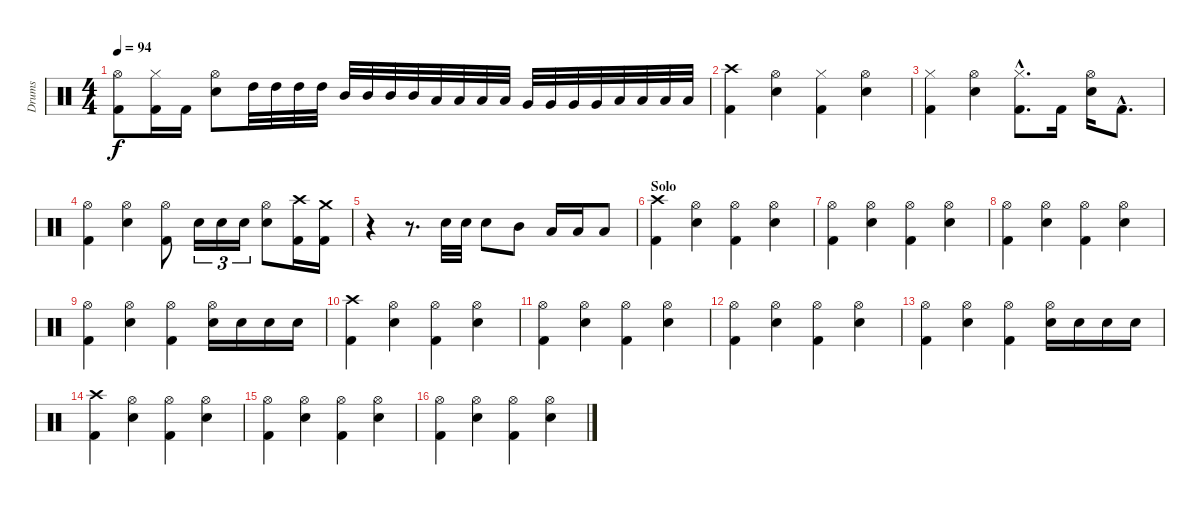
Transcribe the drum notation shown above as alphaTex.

\track ("Drums" "Drums") {instrument percussion}
\staff {score}
\articulation defaults
\ts (4 4)
\tempo 94
\clef neutral
\ks c
("Hi-Hat (open)" "Kick (hit) 2").8{dy f} ("Hi-Hat (closed)" "Kick (hit) 2").16 "Kick (hit) 2".16 ("Hi-Hat (open)" "Snare (hit) 2").8 "High Tom (hit)".32 "High Tom (hit)".32 "High Tom (hit)".32 "High Tom (hit)".32 "Mid Tom (hit)".32 "Mid Tom (hit)".32 "Mid Tom (hit)".32 "Mid Tom (hit)".32 "Low Tom (hit)".32 "Low Tom (hit)".32 "Low Tom (hit)".32 "Low Tom (hit)".32 "Very Low Tom (hit)".32 "Very Low Tom (hit)".32 "Very Low Tom (hit)".32 "Very Low Tom (hit)".32 "Low Floor Tom (hit)".32 "Low Floor Tom (hit)".32 "Low Floor Tom (hit)".32 "Low Floor Tom (hit)".32 |
("Crash high (hit)" "Kick (hit) 2").4 ("Hi-Hat (open)" "Snare (hit) 2").4 ("Hi-Hat (closed)" "Kick (hit) 2").4 ("Hi-Hat (open)" "Snare (hit) 2").4 |
("Hi-Hat (closed)" "Kick (hit) 2").4 ("Hi-Hat (open)" "Snare (hit) 2").4 ("Hi-Hat (closed)"{hac} "Kick (hit) 2"{hac}).8{d} "Kick (hit) 2".16 ("Hi-Hat (open)" "Snare (hit) 2").16 "Kick (hit) 2"{hac}.8{d} |
("Hi-Hat (open)" "Kick (hit) 2").4 ("Hi-Hat (open)" "Snare (hit) 2").4 ("Hi-Hat (open)" "Kick (hit) 2").8 "Snare (hit) 2".16{tu (3 2)} "Snare (hit) 2".16{tu (3 2)} "Snare (hit) 2".16{tu (3 2)} ("Hi-Hat (open)" "Snare (hit) 2").8 ("Crash high (hit)" "Kick (hit) 2").16 ("Crash medium (hit)" "Kick (hit) 2").16 |
r.4 r.8{d} "Snare (hit) 2".32 "Snare (hit) 2".32 "Snare (hit) 2".8 "Mid Tom (hit)".8 "Low Tom (hit)".16 "Low Tom (hit)".16 "Low Tom (hit)".8 |
\section ("" "Solo")
("Crash high (hit)" "Kick (hit) 2").4 ("Hi-Hat (open)" "Snare (hit) 2").4 ("Hi-Hat (open)" "Kick (hit) 2").4 ("Hi-Hat (open)" "Snare (hit) 2").4 |
("Hi-Hat (open)" "Kick (hit) 2").4 ("Hi-Hat (open)" "Snare (hit) 2").4 ("Hi-Hat (open)" "Kick (hit) 2").4 ("Hi-Hat (open)" "Snare (hit) 2").4 |
("Hi-Hat (open)" "Kick (hit) 2").4 ("Hi-Hat (open)" "Snare (hit) 2").4 ("Hi-Hat (open)" "Kick (hit) 2").4 ("Hi-Hat (open)" "Snare (hit) 2").4 |
("Hi-Hat (open)" "Kick (hit) 2").4 ("Hi-Hat (open)" "Snare (hit) 2").4 ("Hi-Hat (open)" "Kick (hit) 2").4 ("Hi-Hat (open)" "Snare (hit) 2").16 "Snare (hit) 2".16 "Snare (hit) 2".16 "Snare (hit) 2".16 |
("Crash high (hit)" "Kick (hit) 2").4 ("Hi-Hat (open)" "Snare (hit) 2").4 ("Hi-Hat (open)" "Kick (hit) 2").4 ("Hi-Hat (open)" "Snare (hit) 2").4 |
("Hi-Hat (open)" "Kick (hit) 2").4 ("Hi-Hat (open)" "Snare (hit) 2").4 ("Hi-Hat (open)" "Kick (hit) 2").4 ("Hi-Hat (open)" "Snare (hit) 2").4 |
("Hi-Hat (open)" "Kick (hit) 2").4 ("Hi-Hat (open)" "Snare (hit) 2").4 ("Hi-Hat (open)" "Kick (hit) 2").4 ("Hi-Hat (open)" "Snare (hit) 2").4 |
("Hi-Hat (open)" "Kick (hit) 2").4 ("Hi-Hat (open)" "Snare (hit) 2").4 ("Hi-Hat (open)" "Kick (hit) 2").4 ("Hi-Hat (open)" "Snare (hit) 2").16 "Snare (hit) 2".16 "Snare (hit) 2".16 "Snare (hit) 2".16 |
("Crash high (hit)" "Kick (hit) 2").4 ("Hi-Hat (open)" "Snare (hit) 2").4 ("Hi-Hat (open)" "Kick (hit) 2").4 ("Hi-Hat (open)" "Snare (hit) 2").4 |
("Hi-Hat (open)" "Kick (hit) 2").4 ("Hi-Hat (open)" "Snare (hit) 2").4 ("Hi-Hat (open)" "Kick (hit) 2").4 ("Hi-Hat (open)" "Snare (hit) 2").4 |
("Hi-Hat (open)" "Kick (hit) 2").4 ("Hi-Hat (open)" "Snare (hit) 2").4 ("Hi-Hat (open)" "Kick (hit) 2").4 ("Hi-Hat (open)" "Snare (hit) 2").4
